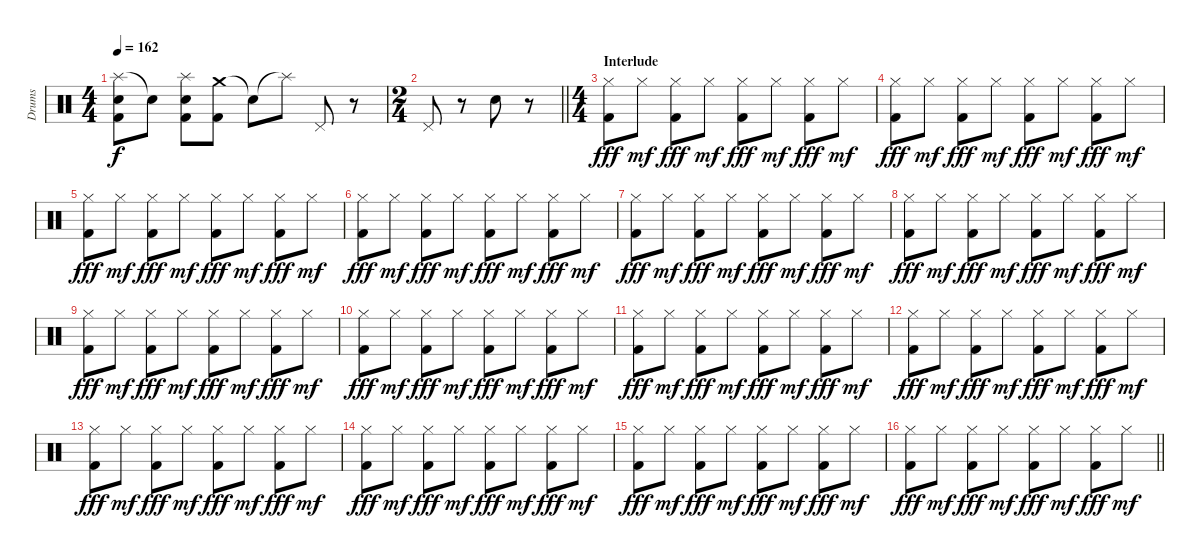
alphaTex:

\track ("Drums" "Drums") {instrument percussion}
\staff {score}
\articulation defaults
\ts (4 4)
\tempo 162
\clef neutral
\ks c
("Splash (hit)" "Electric Snare (hit)" "Kick (hit) 2").8{dy f} "Snare (hit)"{t}.8 ("Splash (hit)" "Electric Snare (hit)" "Kick (hit) 2").8 ("Crash medium (hit)" "Kick (hit) 2").8 "Snare (hit)"{t}.8 "Splash (hit)"{t}.8 "Pedal Hi-Hat (hit)".8 r.8 |
\ts (2 4)
\barLineRight lightlight "Pedal Hi-Hat (hit)".8
r.8 "Electric Snare (hit)".8 r.8 |
\ts (4 4)
\section ("" "Interlude")
("Hi-Hat (closed)" "Kick (hit) 2").8{dy fff} "Hi-Hat (closed)".8{dy mf} ("Hi-Hat (closed)" "Kick (hit) 2").8{dy fff} "Hi-Hat (closed)".8{dy mf} ("Hi-Hat (closed)" "Kick (hit) 2").8{dy fff} "Hi-Hat (closed)".8{dy mf} ("Hi-Hat (closed)" "Kick (hit) 2").8{dy fff} "Hi-Hat (closed)".8{dy mf} |
("Hi-Hat (closed)" "Kick (hit) 2").8{dy fff} "Hi-Hat (closed)".8{dy mf} ("Hi-Hat (closed)" "Kick (hit) 2").8{dy fff} "Hi-Hat (closed)".8{dy mf} ("Hi-Hat (closed)" "Kick (hit) 2").8{dy fff} "Hi-Hat (closed)".8{dy mf} ("Hi-Hat (closed)" "Kick (hit) 2").8{dy fff} "Hi-Hat (closed)".8{dy mf} |
("Hi-Hat (closed)" "Kick (hit) 2").8{dy fff} "Hi-Hat (closed)".8{dy mf} ("Hi-Hat (closed)" "Kick (hit) 2").8{dy fff} "Hi-Hat (closed)".8{dy mf} ("Hi-Hat (closed)" "Kick (hit) 2").8{dy fff} "Hi-Hat (closed)".8{dy mf} ("Hi-Hat (closed)" "Kick (hit) 2").8{dy fff} "Hi-Hat (closed)".8{dy mf} |
("Hi-Hat (closed)" "Kick (hit) 2").8{dy fff} "Hi-Hat (closed)".8{dy mf} ("Hi-Hat (closed)" "Kick (hit) 2").8{dy fff} "Hi-Hat (closed)".8{dy mf} ("Hi-Hat (closed)" "Kick (hit) 2").8{dy fff} "Hi-Hat (closed)".8{dy mf} ("Hi-Hat (closed)" "Kick (hit) 2").8{dy fff} "Hi-Hat (closed)".8{dy mf} |
("Hi-Hat (closed)" "Kick (hit) 2").8{dy fff} "Hi-Hat (closed)".8{dy mf} ("Hi-Hat (closed)" "Kick (hit) 2").8{dy fff} "Hi-Hat (closed)".8{dy mf} ("Hi-Hat (closed)" "Kick (hit) 2").8{dy fff} "Hi-Hat (closed)".8{dy mf} ("Hi-Hat (closed)" "Kick (hit) 2").8{dy fff} "Hi-Hat (closed)".8{dy mf} |
("Hi-Hat (closed)" "Kick (hit) 2").8{dy fff} "Hi-Hat (closed)".8{dy mf} ("Hi-Hat (closed)" "Kick (hit) 2").8{dy fff} "Hi-Hat (closed)".8{dy mf} ("Hi-Hat (closed)" "Kick (hit) 2").8{dy fff} "Hi-Hat (closed)".8{dy mf} ("Hi-Hat (closed)" "Kick (hit) 2").8{dy fff} "Hi-Hat (closed)".8{dy mf} |
("Hi-Hat (closed)" "Kick (hit) 2").8{dy fff} "Hi-Hat (closed)".8{dy mf} ("Hi-Hat (closed)" "Kick (hit) 2").8{dy fff} "Hi-Hat (closed)".8{dy mf} ("Hi-Hat (closed)" "Kick (hit) 2").8{dy fff} "Hi-Hat (closed)".8{dy mf} ("Hi-Hat (closed)" "Kick (hit) 2").8{dy fff} "Hi-Hat (closed)".8{dy mf} |
("Hi-Hat (closed)" "Kick (hit) 2").8{dy fff} "Hi-Hat (closed)".8{dy mf} ("Hi-Hat (closed)" "Kick (hit) 2").8{dy fff} "Hi-Hat (closed)".8{dy mf} ("Hi-Hat (closed)" "Kick (hit) 2").8{dy fff} "Hi-Hat (closed)".8{dy mf} ("Hi-Hat (closed)" "Kick (hit) 2").8{dy fff} "Hi-Hat (closed)".8{dy mf} |
("Hi-Hat (closed)" "Kick (hit) 2").8{dy fff} "Hi-Hat (closed)".8{dy mf} ("Hi-Hat (closed)" "Kick (hit) 2").8{dy fff} "Hi-Hat (closed)".8{dy mf} ("Hi-Hat (closed)" "Kick (hit) 2").8{dy fff} "Hi-Hat (closed)".8{dy mf} ("Hi-Hat (closed)" "Kick (hit) 2").8{dy fff} "Hi-Hat (closed)".8{dy mf} |
("Hi-Hat (closed)" "Kick (hit) 2").8{dy fff} "Hi-Hat (closed)".8{dy mf} ("Hi-Hat (closed)" "Kick (hit) 2").8{dy fff} "Hi-Hat (closed)".8{dy mf} ("Hi-Hat (closed)" "Kick (hit) 2").8{dy fff} "Hi-Hat (closed)".8{dy mf} ("Hi-Hat (closed)" "Kick (hit) 2").8{dy fff} "Hi-Hat (closed)".8{dy mf} |
("Hi-Hat (closed)" "Kick (hit) 2").8{dy fff} "Hi-Hat (closed)".8{dy mf} ("Hi-Hat (closed)" "Kick (hit) 2").8{dy fff} "Hi-Hat (closed)".8{dy mf} ("Hi-Hat (closed)" "Kick (hit) 2").8{dy fff} "Hi-Hat (closed)".8{dy mf} ("Hi-Hat (closed)" "Kick (hit) 2").8{dy fff} "Hi-Hat (closed)".8{dy mf} |
("Hi-Hat (closed)" "Kick (hit) 2").8{dy fff} "Hi-Hat (closed)".8{dy mf} ("Hi-Hat (closed)" "Kick (hit) 2").8{dy fff} "Hi-Hat (closed)".8{dy mf} ("Hi-Hat (closed)" "Kick (hit) 2").8{dy fff} "Hi-Hat (closed)".8{dy mf} ("Hi-Hat (closed)" "Kick (hit) 2").8{dy fff} "Hi-Hat (closed)".8{dy mf} |
("Hi-Hat (closed)" "Kick (hit) 2").8{dy fff} "Hi-Hat (closed)".8{dy mf} ("Hi-Hat (closed)" "Kick (hit) 2").8{dy fff} "Hi-Hat (closed)".8{dy mf} ("Hi-Hat (closed)" "Kick (hit) 2").8{dy fff} "Hi-Hat (closed)".8{dy mf} ("Hi-Hat (closed)" "Kick (hit) 2").8{dy fff} "Hi-Hat (closed)".8{dy mf} |
\barLineRight lightlight
("Hi-Hat (closed)" "Kick (hit) 2").8{dy fff} "Hi-Hat (closed)".8{dy mf} ("Hi-Hat (closed)" "Kick (hit) 2").8{dy fff} "Hi-Hat (closed)".8{dy mf} ("Hi-Hat (closed)" "Kick (hit) 2").8{dy fff} "Hi-Hat (closed)".8{dy mf} ("Hi-Hat (closed)" "Kick (hit) 2").8{dy fff} "Hi-Hat (closed)".8{dy mf}
